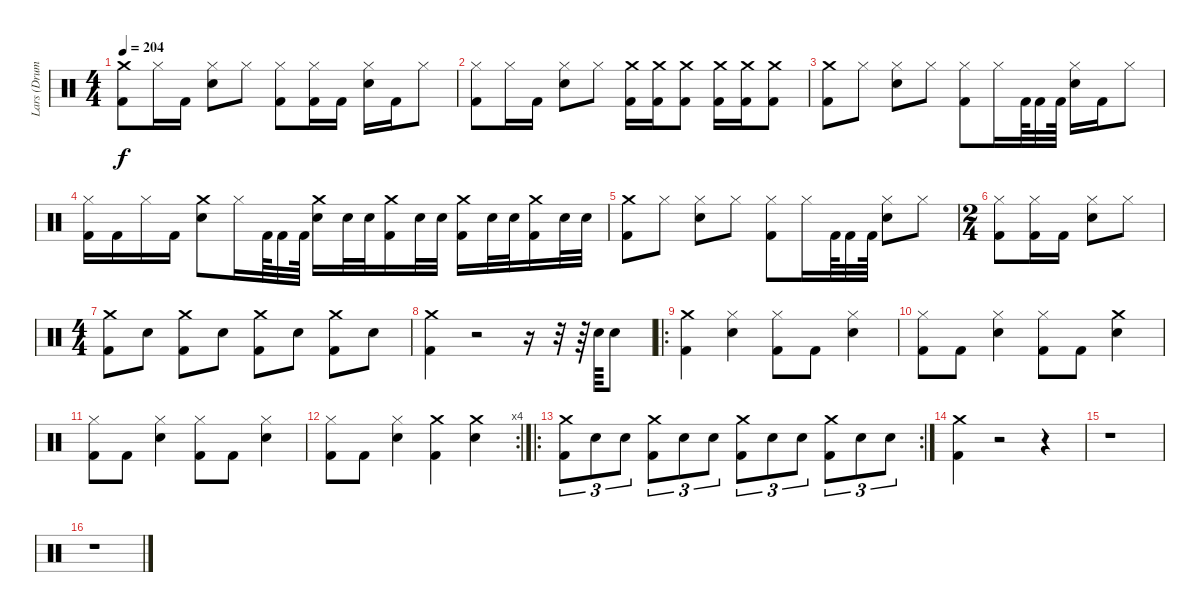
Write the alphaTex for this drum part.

\track ("Lars (Drums)" "Lars (Drum") {instrument percussion}
\staff {score}
\articulation defaults
\ts (4 4)
\tempo 204
\clef neutral
\ks c
("Kick (hit) 2" "Crash medium (hit)").8{dy f} "Hi-Hat (closed)".16 "Kick (hit) 2".16 ("Snare (hit) 2" "Hi-Hat (closed)").8 "Hi-Hat (closed)".8 ("Hi-Hat (closed)" "Kick (hit) 2").8 ("Hi-Hat (closed)" "Kick (hit) 2").16 "Kick (hit) 2".16 ("Snare (hit) 2" "Hi-Hat (closed)").16 "Kick (hit) 2".16 "Hi-Hat (closed)".8 |
("Hi-Hat (closed)" "Kick (hit) 2").8 "Hi-Hat (closed)".16 "Kick (hit) 2".16 ("Snare (hit) 2" "Hi-Hat (closed)").8 "Hi-Hat (closed)".8 ("Kick (hit) 2" "Crash medium (hit)").16 ("Kick (hit) 2" "Crash medium (hit)").16 ("Kick (hit) 2" "Crash medium (hit)").8 ("Kick (hit) 2" "Crash medium (hit)").16 ("Kick (hit) 2" "Crash medium (hit)").16 ("Kick (hit) 2" "Crash medium (hit)").8 |
("Crash medium (hit)" "Kick (hit) 2").8 "Hi-Hat (closed)".8 ("Snare (hit) 2" "Hi-Hat (closed)").8 "Hi-Hat (closed)".8 ("Hi-Hat (closed)" "Kick (hit) 2").8 "Hi-Hat (closed)".16 "Kick (hit) 2".64 "Kick (hit) 2".32 "Kick (hit) 2".64 ("Snare (hit) 2" "Hi-Hat (closed)").16 "Kick (hit) 2".16 "Hi-Hat (closed)".8 |
("Hi-Hat (closed)" "Kick (hit) 2").16 "Kick (hit) 2".16 "Hi-Hat (closed)".16 "Kick (hit) 2".16 ("Crash medium (hit)" "Snare (hit) 2").8 "Hi-Hat (closed)".16 "Kick (hit) 2".64 "Kick (hit) 2".32 "Kick (hit) 2".64 ("Snare (hit) 2" "Crash medium (hit)").16 "Snare (hit) 2".32 "Snare (hit) 2".32 ("Crash medium (hit)" "Kick (hit) 2").16 "Snare (hit) 2".32 "Snare (hit) 2".32 ("Crash medium (hit)" "Kick (hit) 2").16 "Snare (hit) 2".32 "Snare (hit) 2".32 ("Crash medium (hit)" "Kick (hit) 2").16 "Snare (hit) 2".32 "Snare (hit) 2".32 |
("Kick (hit) 2" "Crash medium (hit)").8 "Hi-Hat (closed)".8 ("Snare (hit) 2" "Hi-Hat (closed)").8 "Hi-Hat (closed)".8 ("Hi-Hat (closed)" "Kick (hit) 2").8 "Hi-Hat (closed)".16 "Kick (hit) 2".64 "Kick (hit) 2".32 "Kick (hit) 2".64 ("Hi-Hat (closed)" "Snare (hit) 2").8 "Hi-Hat (closed)".8 |
\ts (2 4)
("Kick (hit) 2" "Hi-Hat (closed)").8 ("Kick (hit) 2" "Hi-Hat (closed)").16 "Kick (hit) 2".16 ("Snare (hit) 2" "Hi-Hat (closed)").8 "Hi-Hat (closed)".8 |
\ts (4 4)
("Kick (hit) 2" "Crash medium (hit)").8 "Snare (hit) 2".8 ("Kick (hit) 2" "Crash medium (hit)").8 "Snare (hit) 2".8 ("Kick (hit) 2" "Crash medium (hit)").8 "Snare (hit) 2".8 ("Kick (hit) 2" "Crash medium (hit)").8 "Snare (hit) 2".8 |
("Kick (hit) 2" "Crash medium (hit)").4 r.2 r.16 r.32 r.64 "Snare (hit) 2".64 "Snare (hit) 2".8 |
\ro
("Kick (hit) 2" "Crash medium (hit)").4 ("Hi-Hat (closed)" "Snare (hit) 2").4 ("Hi-Hat (closed)" "Kick (hit) 2").8 "Kick (hit) 2".8 ("Snare (hit) 2" "Hi-Hat (closed)").4 |
("Hi-Hat (closed)" "Kick (hit) 2").8 "Kick (hit) 2".8 ("Snare (hit) 2" "Hi-Hat (closed)").4 ("Hi-Hat (closed)" "Kick (hit) 2").8 "Kick (hit) 2".8 ("Crash medium (hit)" "Snare (hit) 2").4 |
("Hi-Hat (closed)" "Kick (hit) 2").8 "Kick (hit) 2".8 ("Snare (hit) 2" "Hi-Hat (closed)").4 ("Hi-Hat (closed)" "Kick (hit) 2").8 "Kick (hit) 2".8 ("Snare (hit) 2" "Hi-Hat (closed)").4 |
\rc 4
("Hi-Hat (closed)" "Kick (hit) 2").8 "Kick (hit) 2".8 ("Snare (hit) 2" "Hi-Hat (closed)").4 ("Crash medium (hit)" "Kick (hit) 2").4 ("Crash medium (hit)" "Snare (hit) 2").4 |
\ro
\rc 2
("Kick (hit) 2" "Crash medium (hit)").8{tu (3 2)} "Snare (hit) 2".8{tu (3 2)} "Snare (hit) 2".8{tu (3 2)} ("Kick (hit) 2" "Crash medium (hit)").8{tu (3 2)} "Snare (hit) 2".8{tu (3 2)} "Snare (hit) 2".8{tu (3 2)} ("Kick (hit) 2" "Crash medium (hit)").8{tu (3 2)} "Snare (hit) 2".8{tu (3 2)} "Snare (hit) 2".8{tu (3 2)} ("Kick (hit) 2" "Crash medium (hit)").8{tu (3 2)} "Snare (hit) 2".8{tu (3 2)} "Snare (hit) 2".8{tu (3 2)} |
("Kick (hit) 2" "Crash medium (hit)").4 r.2 r.4 |
r.1 |
r.1
